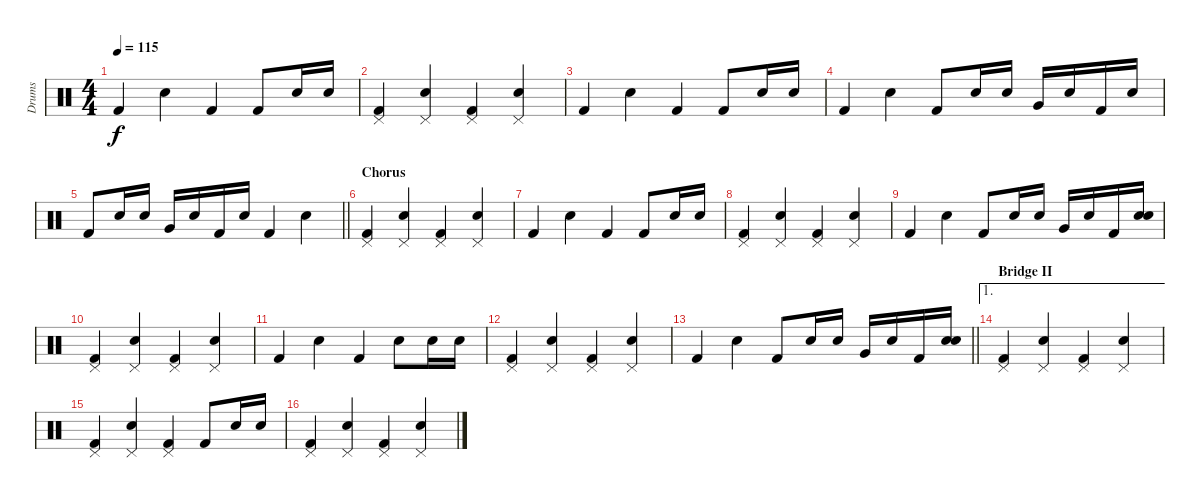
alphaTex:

\track ("Drums" "Drums") {instrument percussion}
\staff {score}
\articulation defaults
\ts (4 4)
\tempo 115
\clef neutral
\ks c "Kick (hit) 2".4{dy f} "Electric Snare (hit)".4 "Kick (hit) 2".4 "Kick (hit) 2".8 "Snare (hit) 2".16 "Electric Snare (hit)".16
|
("Pedal Hi-Hat (hit)" "Kick (hit) 2").4 ("Pedal Hi-Hat (hit)" "Electric Snare (hit)").4 ("Pedal Hi-Hat (hit)" "Kick (hit) 2").4 ("Pedal Hi-Hat (hit)" "Electric Snare (hit)").4 |
"Kick (hit) 2".4 "Electric Snare (hit)".4 "Kick (hit) 2".4 "Kick (hit) 2".8 "Snare (hit) 2".16 "Electric Snare (hit)".16 |
"Kick (hit) 2".4 "Electric Snare (hit)".4 "Kick (hit) 2".8 "Snare (hit) 2".16 "Electric Snare (hit)".16 "Very Low Tom (hit)".16 "Electric Snare (hit)".16 "Kick (hit) 2".16 "Snare (hit) 2".16 |
\barLineRight lightlight "Kick (hit) 2".8 "Snare (hit) 2".16 "Electric Snare (hit)".16 "Very Low Tom (hit)".16 "Electric Snare (hit)".16 "Kick (hit) 2".16 "Snare (hit) 2".16 "Kick (hit) 2".4 "Electric Snare (hit)".4
|
\section ("" "Chorus")
("Pedal Hi-Hat (hit)" "Kick (hit) 2").4 ("Pedal Hi-Hat (hit)" "Electric Snare (hit)").4 ("Pedal Hi-Hat (hit)" "Kick (hit) 2").4 ("Pedal Hi-Hat (hit)" "Electric Snare (hit)").4 |
"Kick (hit) 2".4 "Electric Snare (hit)".4 "Kick (hit) 2".4 "Kick (hit) 2".8 "Snare (hit) 2".16 "Electric Snare (hit)".16 |
("Pedal Hi-Hat (hit)" "Kick (hit) 2").4 ("Pedal Hi-Hat (hit)" "Electric Snare (hit)").4 ("Pedal Hi-Hat (hit)" "Kick (hit) 2").4 ("Pedal Hi-Hat (hit)" "Electric Snare (hit)").4 |
"Kick (hit) 2".4 "Electric Snare (hit)".4 "Kick (hit) 2".8 "Snare (hit) 2".16 "Electric Snare (hit)".16 "Very Low Tom (hit)".16 "Electric Snare (hit)".16 "Kick (hit) 2".16 ("Snare (hit) 2" "Electric Snare (hit)").16 |
("Pedal Hi-Hat (hit)" "Kick (hit) 2").4 ("Pedal Hi-Hat (hit)" "Electric Snare (hit)").4 ("Pedal Hi-Hat (hit)" "Kick (hit) 2").4 ("Pedal Hi-Hat (hit)" "Electric Snare (hit)").4 |
"Kick (hit) 2".4 "Electric Snare (hit)".4 "Kick (hit) 2".4 "Electric Snare (hit)".8 "Snare (hit) 2".16 "Electric Snare (hit)".16 |
("Pedal Hi-Hat (hit)" "Kick (hit) 2").4 ("Pedal Hi-Hat (hit)" "Electric Snare (hit)").4 ("Pedal Hi-Hat (hit)" "Kick (hit) 2").4 ("Pedal Hi-Hat (hit)" "Electric Snare (hit)").4 |
\barLineRight lightlight "Kick (hit) 2".4 "Electric Snare (hit)".4 "Kick (hit) 2".8 "Snare (hit) 2".16 "Electric Snare (hit)".16 "Very Low Tom (hit)".16 "Electric Snare (hit)".16 "Kick (hit) 2".16
("Snare (hit) 2" "Electric Snare (hit)").16 |
\ae 1
\section ("" "Bridge II")
("Pedal Hi-Hat (hit)" "Kick (hit) 2").4 ("Pedal Hi-Hat (hit)" "Electric Snare (hit)").4 ("Pedal Hi-Hat (hit)" "Kick (hit) 2").4 ("Pedal Hi-Hat (hit)" "Electric Snare (hit)").4 |
("Pedal Hi-Hat (hit)" "Kick (hit) 2").4 ("Pedal Hi-Hat (hit)" "Electric Snare (hit)").4 ("Pedal Hi-Hat (hit)" "Kick (hit) 2").4 "Kick (hit) 2".8 "Snare (hit) 2".16 "Electric Snare (hit)".16 |
("Pedal Hi-Hat (hit)" "Kick (hit) 2").4 ("Pedal Hi-Hat (hit)" "Electric Snare (hit)").4 ("Pedal Hi-Hat (hit)" "Kick (hit) 2").4 ("Pedal Hi-Hat (hit)" "Electric Snare (hit)").4
